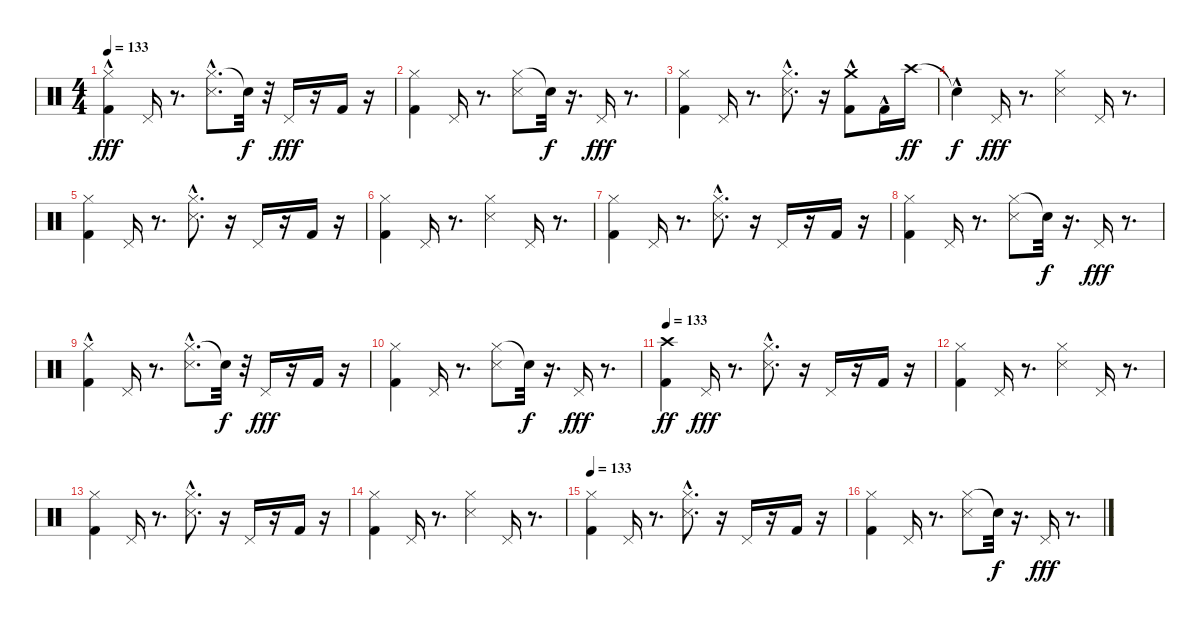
\track "" {instrument percussion}
\staff {score}
\articulation defaults
\ts (4 4)
\tempo 133
\clef neutral
\ks c
("Hi-Hat (closed)" "Kick (hit) 2"{hac}).4{dy fff} "Pedal Hi-Hat (hit)".16 r.8{d} ("Hi-Hat (closed)" "Snare (side stick) 3"{hac}).8{d} "Snare (hit)"{t}.32{dy f} r.32 "Pedal Hi-Hat (hit)".16{dy fff} r.16 "Kick (hit) 2".16 r.16 |
("Hi-Hat (closed)" "Kick (hit) 2").4 "Pedal Hi-Hat (hit)".16 r.8{d} ("Hi-Hat (closed)" "Snare (side stick) 3").8 "Snare (hit)"{t}.32{dy f} r.16{d} "Pedal Hi-Hat (hit)".16{dy fff} r.8{d} |
("Kick (hit) 2" "Hi-Hat (closed)").4 "Pedal Hi-Hat (hit)".16 r.8{d} ("Hi-Hat (closed)" "Snare (side stick) 3"{hac}).8{d} r.16 ("Crash medium (hit)" "Kick (hit) 2"{hac}).8 "Kick (hit) 2"{hac}.16 "Crash high (hit)".16{dy ff} |
"Snare (hit)"{hac t}.4{dy f} "Pedal Hi-Hat (hit)".16{dy fff} r.8{d} ("Hi-Hat (closed)" "Snare (side stick) 3").4 "Pedal Hi-Hat (hit)".16 r.8{d} |
("Hi-Hat (closed)" "Kick (hit) 2").4 "Pedal Hi-Hat (hit)".16 r.8{d} ("Hi-Hat (closed)" "Snare (side stick) 3"{hac}).8{d} r.16 "Pedal Hi-Hat (hit)".16 r.16 "Kick (hit) 2".16 r.16 |
("Hi-Hat (closed)" "Kick (hit) 2").4 "Pedal Hi-Hat (hit)".16 r.8{d} ("Hi-Hat (closed)" "Snare (side stick) 3").4 "Pedal Hi-Hat (hit)".16 r.8{d} |
("Hi-Hat (closed)" "Kick (hit) 2").4 "Pedal Hi-Hat (hit)".16 r.8{d} ("Snare (side stick) 3"{hac} "Hi-Hat (closed)").8{d} r.16 "Pedal Hi-Hat (hit)".16 r.16 "Kick (hit) 2".16 r.16 |
("Hi-Hat (closed)" "Kick (hit) 2").4 "Pedal Hi-Hat (hit)".16 r.8{d} ("Hi-Hat (closed)" "Snare (side stick) 3").8 "Snare (hit)"{t}.32{dy f} r.16{d} "Pedal Hi-Hat (hit)".16{dy fff} r.8{d} |
("Hi-Hat (closed)" "Kick (hit) 2"{hac}).4 "Pedal Hi-Hat (hit)".16 r.8{d} ("Hi-Hat (closed)" "Snare (side stick) 3"{hac}).8{d} "Snare (hit)"{t}.32{dy f} r.32 "Pedal Hi-Hat (hit)".16{dy fff} r.16 "Kick (hit) 2".16 r.16 |
("Hi-Hat (closed)" "Kick (hit) 2").4 "Pedal Hi-Hat (hit)".16 r.8{d} ("Hi-Hat (closed)" "Snare (side stick) 3").8 "Snare (hit)"{t}.32{dy f} r.16{d} "Pedal Hi-Hat (hit)".16{dy fff} r.8{d} |
\tempo 133
("Kick (hit) 2" "Crash high (hit)").4{dy ff} "Pedal Hi-Hat (hit)".16{dy fff} r.8{d} ("Hi-Hat (closed)" "Snare (side stick) 3"{hac}).8{d} r.16 "Pedal Hi-Hat (hit)".16 r.16 "Kick (hit) 2".16 r.16 |
("Hi-Hat (closed)" "Kick (hit) 2").4 "Pedal Hi-Hat (hit)".16 r.8{d} ("Hi-Hat (closed)" "Snare (side stick) 3").4 "Pedal Hi-Hat (hit)".16 r.8{d} |
("Hi-Hat (closed)" "Kick (hit) 2").4 "Pedal Hi-Hat (hit)".16 r.8{d} ("Hi-Hat (closed)" "Snare (side stick) 3"{hac}).8{d} r.16 "Pedal Hi-Hat (hit)".16 r.16 "Kick (hit) 2".16 r.16 |
("Hi-Hat (closed)" "Kick (hit) 2").4 "Pedal Hi-Hat (hit)".16 r.8{d} ("Hi-Hat (closed)" "Snare (side stick) 3").4 "Pedal Hi-Hat (hit)".16 r.8{d} |
\tempo 133
("Hi-Hat (closed)" "Kick (hit) 2").4 "Pedal Hi-Hat (hit)".16 r.8{d} ("Snare (side stick) 3"{hac} "Hi-Hat (closed)").8{d} r.16 "Pedal Hi-Hat (hit)".16 r.16 "Kick (hit) 2".16 r.16 |
("Hi-Hat (closed)" "Kick (hit) 2").4 "Pedal Hi-Hat (hit)".16 r.8{d} ("Hi-Hat (closed)" "Snare (side stick) 3").8 "Snare (hit)"{t}.32{dy f} r.16{d} "Pedal Hi-Hat (hit)".16{dy fff} r.8{d}
